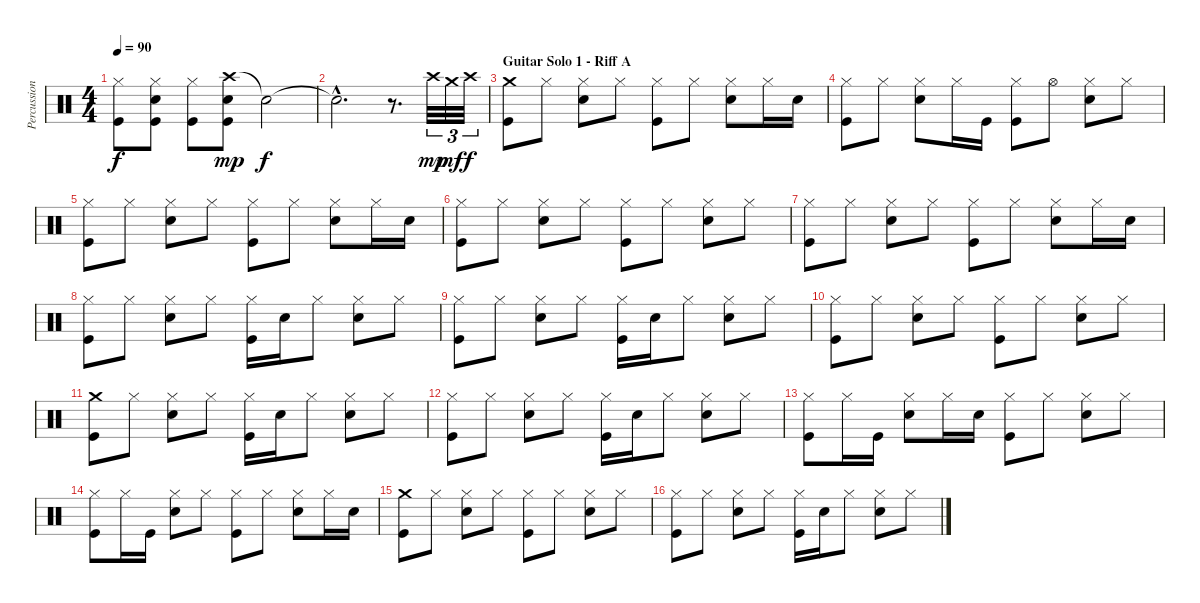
\track ("Percussion (DK 0)" "Percussion") {instrument percussion}
\staff {score}
\articulation defaults
\ts (4 4)
\tempo 90
\clef neutral
\ks c
("Hi-Hat (closed)" "Kick (hit)").8{dy f} ("Hi-Hat (closed)" "Electric Snare (hit)" "Kick (hit)").8 ("Hi-Hat (closed)" "Kick (hit)").8 ("Crash high (hit)" "Electric Snare (hit)" "Kick (hit)").8{dy mp} "Snare (hit)"{t}.2{dy f} |
"Snare (hit)"{hac t}.2{d} r.8{d} "Crash high (hit)".32{tu (3 2) dy mp} "Crash medium (hit)".32{tu (3 2) dy mf} "Crash high (hit)".32{tu (3 2) dy f} |
\section ("" "Guitar Solo 1 - Riff A")
("Crash medium (hit)" "Kick (hit)").8 "Hi-Hat (closed)".8 ("Hi-Hat (closed)" "Electric Snare (hit)").8 "Hi-Hat (closed)".8 ("Hi-Hat (closed)" "Kick (hit)").8 "Hi-Hat (closed)".8 ("Hi-Hat (closed)" "Electric Snare (hit)").8 "Hi-Hat (closed)".16 "Electric Snare (hit)".16 |
("Hi-Hat (closed)" "Kick (hit)").8 "Hi-Hat (closed)".8 ("Hi-Hat (closed)" "Electric Snare (hit)").8 "Hi-Hat (closed)".16 "Kick (hit)".16 ("Hi-Hat (closed)" "Kick (hit)").8 "Hi-Hat (open)".8 ("Hi-Hat (closed)" "Electric Snare (hit)").8 "Hi-Hat (closed)".8 |
("Hi-Hat (closed)" "Kick (hit)").8 "Hi-Hat (closed)".8 ("Hi-Hat (closed)" "Electric Snare (hit)").8 "Hi-Hat (closed)".8 ("Hi-Hat (closed)" "Kick (hit)").8 "Hi-Hat (closed)".8 ("Hi-Hat (closed)" "Electric Snare (hit)").8 "Hi-Hat (closed)".16 "Electric Snare (hit)".16 |
("Hi-Hat (closed)" "Kick (hit)").8 "Hi-Hat (closed)".8 ("Hi-Hat (closed)" "Electric Snare (hit)").8 "Hi-Hat (closed)".8 ("Hi-Hat (closed)" "Kick (hit)").8 "Hi-Hat (closed)".8 ("Hi-Hat (closed)" "Electric Snare (hit)").8 "Hi-Hat (closed)".8 |
("Hi-Hat (closed)" "Kick (hit)").8 "Hi-Hat (closed)".8 ("Hi-Hat (closed)" "Electric Snare (hit)").8 "Hi-Hat (closed)".8 ("Hi-Hat (closed)" "Kick (hit)").8 "Hi-Hat (closed)".8 ("Hi-Hat (closed)" "Electric Snare (hit)").8 "Hi-Hat (closed)".16 "Electric Snare (hit)".16 |
("Hi-Hat (closed)" "Kick (hit)").8 "Hi-Hat (closed)".8 ("Hi-Hat (closed)" "Electric Snare (hit)").8 "Hi-Hat (closed)".8 ("Hi-Hat (closed)" "Kick (hit)").16 "Electric Snare (hit)".16 "Hi-Hat (closed)".8 ("Hi-Hat (closed)" "Electric Snare (hit)").8 "Hi-Hat (closed)".8 |
("Hi-Hat (closed)" "Kick (hit)").8 "Hi-Hat (closed)".8 ("Hi-Hat (closed)" "Electric Snare (hit)").8 "Hi-Hat (closed)".8 ("Hi-Hat (closed)" "Kick (hit)").16 "Electric Snare (hit)".16 "Hi-Hat (closed)".8 ("Hi-Hat (closed)" "Electric Snare (hit)").8 "Hi-Hat (closed)".8 |
("Hi-Hat (closed)" "Kick (hit)").8 "Hi-Hat (closed)".8 ("Hi-Hat (closed)" "Electric Snare (hit)").8 "Hi-Hat (closed)".8 ("Hi-Hat (closed)" "Kick (hit)").8 "Hi-Hat (closed)".8 ("Hi-Hat (closed)" "Electric Snare (hit)").8 "Hi-Hat (closed)".8 |
("Crash medium (hit)" "Kick (hit)").8 "Hi-Hat (closed)".8 ("Hi-Hat (closed)" "Electric Snare (hit)").8 "Hi-Hat (closed)".8 ("Hi-Hat (closed)" "Kick (hit)").16 "Electric Snare (hit)".16 "Hi-Hat (closed)".8 ("Hi-Hat (closed)" "Electric Snare (hit)").8 "Hi-Hat (closed)".8 |
("Hi-Hat (closed)" "Kick (hit)").8 "Hi-Hat (closed)".8 ("Hi-Hat (closed)" "Electric Snare (hit)").8 "Hi-Hat (closed)".8 ("Hi-Hat (closed)" "Kick (hit)").16 "Electric Snare (hit)".16 "Hi-Hat (closed)".8 ("Hi-Hat (closed)" "Electric Snare (hit)").8 "Hi-Hat (closed)".8 |
("Hi-Hat (closed)" "Kick (hit)").8 "Hi-Hat (closed)".16 "Kick (hit)".16 ("Hi-Hat (closed)" "Electric Snare (hit)").8 "Hi-Hat (closed)".16 "Electric Snare (hit)".16 ("Hi-Hat (closed)" "Kick (hit)").8 "Hi-Hat (closed)".8 ("Hi-Hat (closed)" "Electric Snare (hit)").8 "Hi-Hat (closed)".8 |
("Hi-Hat (closed)" "Kick (hit)").8 "Hi-Hat (closed)".16 "Kick (hit)".16 ("Hi-Hat (closed)" "Electric Snare (hit)").8 "Hi-Hat (closed)".8 ("Hi-Hat (closed)" "Kick (hit)").8 "Hi-Hat (closed)".8 ("Hi-Hat (closed)" "Electric Snare (hit)").8 "Hi-Hat (closed)".16 "Electric Snare (hit)".16 |
("Crash medium (hit)" "Kick (hit)").8 "Hi-Hat (closed)".8 ("Hi-Hat (closed)" "Electric Snare (hit)").8 "Hi-Hat (closed)".8 ("Hi-Hat (closed)" "Kick (hit)").8 "Hi-Hat (closed)".8 ("Hi-Hat (closed)" "Electric Snare (hit)").8 "Hi-Hat (closed)".8 |
("Hi-Hat (closed)" "Kick (hit)").8 "Hi-Hat (closed)".8 ("Hi-Hat (closed)" "Electric Snare (hit)").8 "Hi-Hat (closed)".8 ("Hi-Hat (closed)" "Kick (hit)").16 "Electric Snare (hit)".16 "Hi-Hat (closed)".8 ("Hi-Hat (closed)" "Electric Snare (hit)").8 "Hi-Hat (closed)".8
